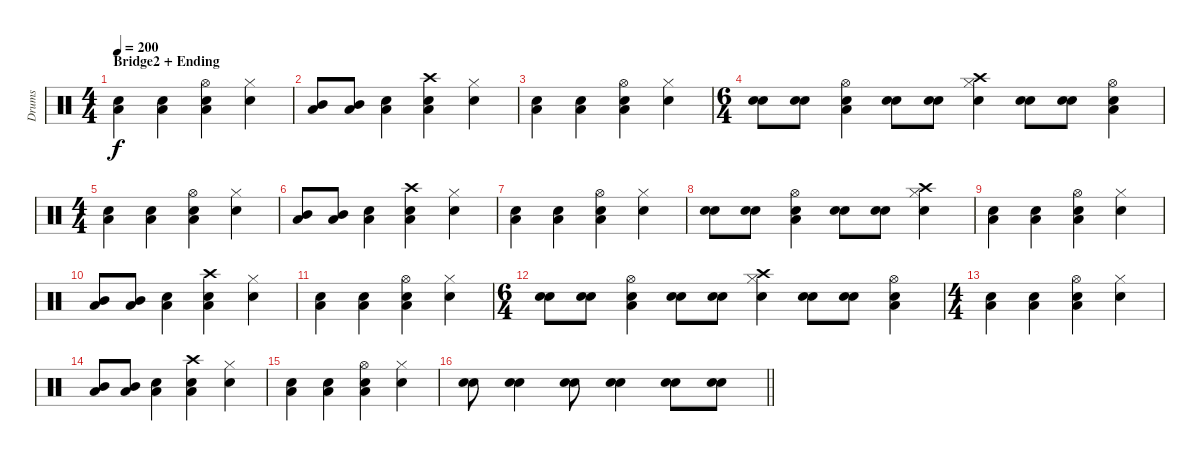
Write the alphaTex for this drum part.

\track ("Drums" "Drums") {instrument percussion}
\staff {score}
\articulation defaults
\ts (4 4)
\section ("" "Bridge2 + Ending")
\tempo 200
\clef neutral
\ks c
("Electric Snare (hit)" "Low Tom (hit)").4{dy f} ("Electric Snare (hit)" "Low Tom (hit)").4 ("Snare (hit) 2" "Low Tom (hit)" "Hi-Hat (open)").4 ("Electric Snare (hit)" "Hi-Hat (closed)").4 |
("Mid Tom (hit)" "Low Tom (hit)").8 ("Mid Tom (hit)" "Low Tom (hit)").8 ("Snare (hit) 2" "Low Tom (hit)").4 ("Electric Snare (hit)" "Low Tom (hit)" "Crash high (hit)").4 ("Electric Snare (hit)" "Hi-Hat (closed)").4 |
("Electric Snare (hit)" "Low Tom (hit)").4 ("Electric Snare (hit)" "Low Tom (hit)").4 ("Snare (hit) 2" "Low Tom (hit)" "Hi-Hat (open)").4 ("Electric Snare (hit)" "Hi-Hat (closed)").4 |
\ts (6 4)
("Snare (hit) 2" "Electric Snare (hit)").8 ("Snare (hit) 2" "Electric Snare (hit)").8 ("Electric Snare (hit)" "Low Tom (hit)" "Hi-Hat (open)").4 ("Snare (hit) 2" "Electric Snare (hit)").8 ("Snare (hit) 2" "Electric Snare (hit)").8 ("Electric Snare (hit)" "Hi-Hat (closed)" "Crash high (hit)").4 ("Snare (hit) 2" "Electric Snare (hit)").8 ("Snare (hit) 2" "Electric Snare (hit)").8 ("Electric Snare (hit)" "Low Tom (hit)" "Hi-Hat (open)").4 |
\ts (4 4)
("Electric Snare (hit)" "Low Tom (hit)").4 ("Electric Snare (hit)" "Low Tom (hit)").4 ("Snare (hit) 2" "Low Tom (hit)" "Hi-Hat (open)").4 ("Electric Snare (hit)" "Hi-Hat (closed)").4 |
("Mid Tom (hit)" "Low Tom (hit)").8 ("Mid Tom (hit)" "Low Tom (hit)").8 ("Snare (hit) 2" "Low Tom (hit)").4 ("Electric Snare (hit)" "Low Tom (hit)" "Crash high (hit)").4 ("Electric Snare (hit)" "Hi-Hat (closed)").4 |
("Electric Snare (hit)" "Low Tom (hit)").4 ("Electric Snare (hit)" "Low Tom (hit)").4 ("Snare (hit) 2" "Low Tom (hit)" "Hi-Hat (open)").4 ("Electric Snare (hit)" "Hi-Hat (closed)").4 |
("Snare (hit) 2" "Electric Snare (hit)").8 ("Snare (hit) 2" "Electric Snare (hit)").8 ("Electric Snare (hit)" "Low Tom (hit)" "Hi-Hat (open)").4 ("Snare (hit) 2" "Electric Snare (hit)").8 ("Snare (hit) 2" "Electric Snare (hit)").8 ("Electric Snare (hit)" "Hi-Hat (closed)" "Crash high (hit)").4 |
("Electric Snare (hit)" "Low Tom (hit)").4 ("Electric Snare (hit)" "Low Tom (hit)").4 ("Snare (hit) 2" "Low Tom (hit)" "Hi-Hat (open)").4 ("Electric Snare (hit)" "Hi-Hat (closed)").4 |
("Mid Tom (hit)" "Low Tom (hit)").8 ("Mid Tom (hit)" "Low Tom (hit)").8 ("Snare (hit) 2" "Low Tom (hit)").4 ("Electric Snare (hit)" "Low Tom (hit)" "Crash high (hit)").4 ("Electric Snare (hit)" "Hi-Hat (closed)").4 |
("Electric Snare (hit)" "Low Tom (hit)").4 ("Electric Snare (hit)" "Low Tom (hit)").4 ("Snare (hit) 2" "Low Tom (hit)" "Hi-Hat (open)").4 ("Electric Snare (hit)" "Hi-Hat (closed)").4 |
\ts (6 4)
("Snare (hit) 2" "Electric Snare (hit)").8 ("Snare (hit) 2" "Electric Snare (hit)").8 ("Electric Snare (hit)" "Low Tom (hit)" "Hi-Hat (open)").4 ("Snare (hit) 2" "Electric Snare (hit)").8 ("Snare (hit) 2" "Electric Snare (hit)").8 ("Electric Snare (hit)" "Hi-Hat (closed)" "Crash high (hit)").4 ("Snare (hit) 2" "Electric Snare (hit)").8 ("Snare (hit) 2" "Electric Snare (hit)").8 ("Electric Snare (hit)" "Low Tom (hit)" "Hi-Hat (open)").4 |
\ts (4 4)
("Electric Snare (hit)" "Low Tom (hit)").4 ("Electric Snare (hit)" "Low Tom (hit)").4 ("Snare (hit) 2" "Low Tom (hit)" "Hi-Hat (open)").4 ("Electric Snare (hit)" "Hi-Hat (closed)").4 |
("Mid Tom (hit)" "Low Tom (hit)").8 ("Mid Tom (hit)" "Low Tom (hit)").8 ("Snare (hit) 2" "Low Tom (hit)").4 ("Electric Snare (hit)" "Low Tom (hit)" "Crash high (hit)").4 ("Electric Snare (hit)" "Hi-Hat (closed)").4 |
("Electric Snare (hit)" "Low Tom (hit)").4 ("Electric Snare (hit)" "Low Tom (hit)").4 ("Snare (hit) 2" "Low Tom (hit)" "Hi-Hat (open)").4 ("Electric Snare (hit)" "Hi-Hat (closed)").4 |
\barLineRight lightlight
("Snare (hit) 2" "Electric Snare (hit)").8 ("Snare (hit) 2" "Electric Snare (hit)").4 ("Snare (hit) 2" "Electric Snare (hit)").8 ("Snare (hit) 2" "Electric Snare (hit)").4 ("Snare (hit) 2" "Electric Snare (hit)").8 ("Snare (hit) 2" "Electric Snare (hit)").8
